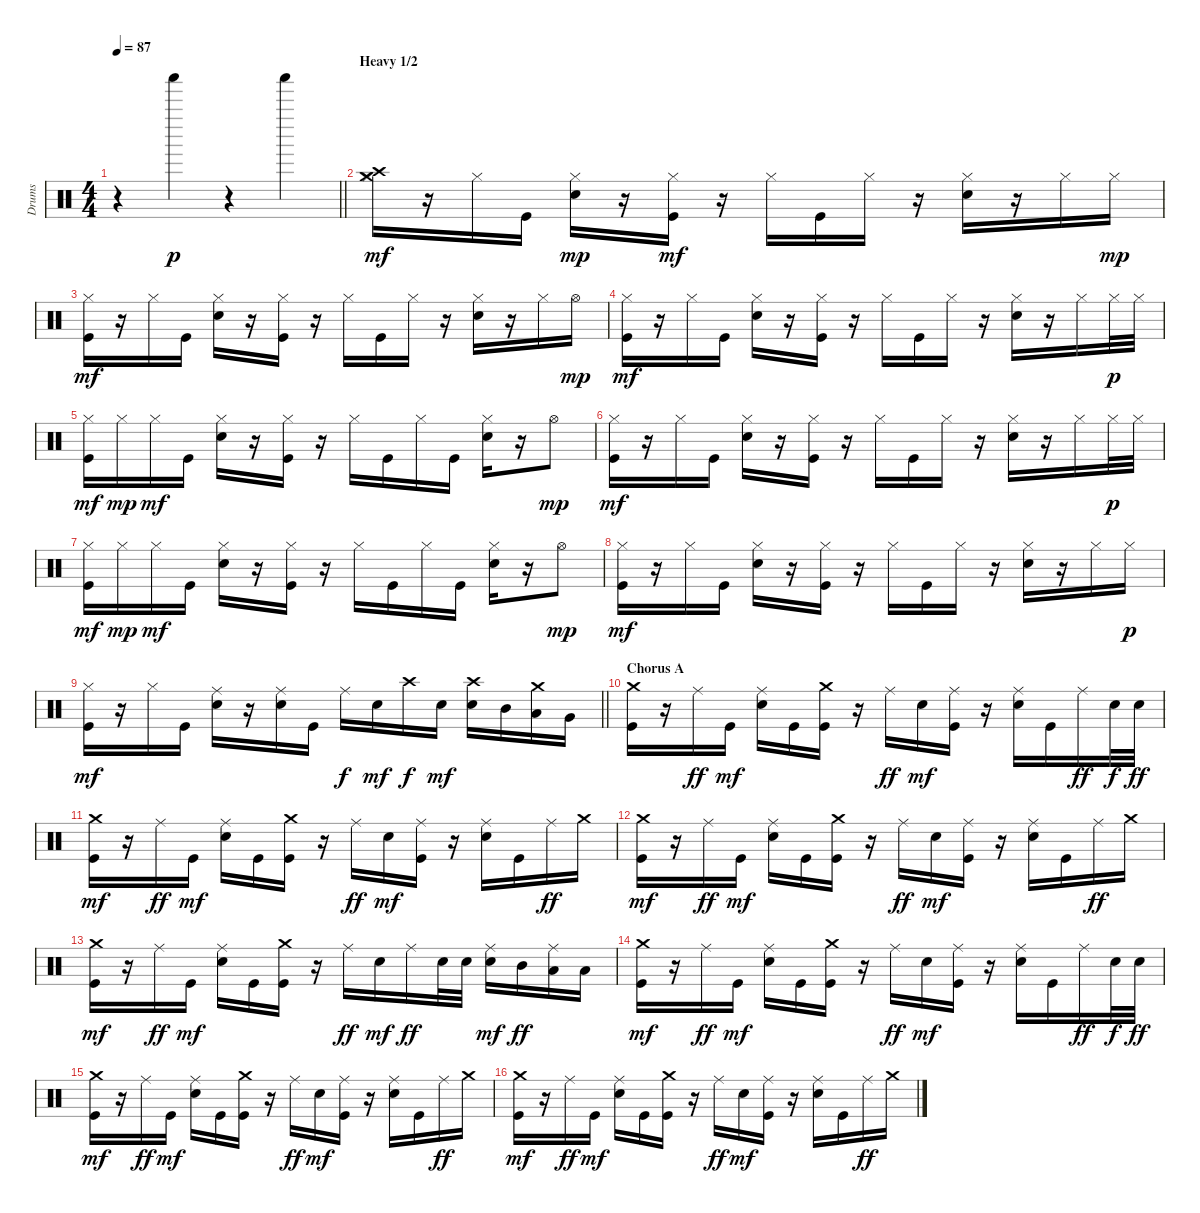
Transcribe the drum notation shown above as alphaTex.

\track ("Drums" "Drums") {instrument percussion}
\staff {score}
\articulation defaults
\ts (4 4)
\tempo 87
\clef neutral
\barLineRight lightlight
\ks c
r.4{dy p} "Shaker (hit)".4 r.4 "Shaker (hit)".4 |
\section ("" "Heavy 1/2")
("Hi-Hat (closed)" "Crash high (hit)" "Crash medium (hit)").16{dy mf} r.16 "Hi-Hat (closed)".16 "Kick (hit)".16 ("Hi-Hat (closed)" "Electric Snare (hit)").16{dy mp} r.16 ("Hi-Hat (closed)" "Kick (hit)").16{dy mf} r.16 "Hi-Hat (closed)".16 "Kick (hit)".16 "Hi-Hat (closed)".16 r.16 ("Hi-Hat (closed)" "Electric Snare (hit)").16 r.16 "Hi-Hat (closed)".16 "Hi-Hat (closed)".16{dy mp} |
("Hi-Hat (closed)" "Kick (hit)").16{dy mf} r.16 "Hi-Hat (closed)".16 "Kick (hit)".16 ("Hi-Hat (closed)" "Electric Snare (hit)").16 r.16 ("Hi-Hat (closed)" "Kick (hit)").16 r.16 "Hi-Hat (closed)".16 "Kick (hit)".16 "Hi-Hat (closed)".16 r.16 ("Hi-Hat (closed)" "Electric Snare (hit)").16 r.16 "Hi-Hat (closed)".16 "Hi-Hat (open)".16{dy mp} |
("Hi-Hat (closed)" "Kick (hit)").16{dy mf} r.16 "Hi-Hat (closed)".16 "Kick (hit)".16 ("Hi-Hat (closed)" "Electric Snare (hit)").16 r.16 ("Hi-Hat (closed)" "Kick (hit)").16 r.16 "Hi-Hat (closed)".16 "Kick (hit)".16 "Hi-Hat (closed)".16 r.16 ("Hi-Hat (closed)" "Electric Snare (hit)").16 r.16 "Hi-Hat (closed)".16 "Hi-Hat (closed)".32{dy p} "Hi-Hat (closed)".32 |
("Hi-Hat (closed)" "Kick (hit)").16{dy mf} "Hi-Hat (closed)".16{dy mp} "Hi-Hat (closed)".16{dy mf} "Kick (hit)".16 ("Hi-Hat (closed)" "Electric Snare (hit)").16 r.16 ("Hi-Hat (closed)" "Kick (hit)").16 r.16 "Hi-Hat (closed)".16 "Kick (hit)".16 "Hi-Hat (closed)".16 "Kick (hit)".16 ("Hi-Hat (closed)" "Electric Snare (hit)").16 r.16 "Hi-Hat (open)".8{dy mp} |
("Hi-Hat (closed)" "Kick (hit)").16{dy mf} r.16 "Hi-Hat (closed)".16 "Kick (hit)".16 ("Hi-Hat (closed)" "Electric Snare (hit)").16 r.16 ("Hi-Hat (closed)" "Kick (hit)").16 r.16 "Hi-Hat (closed)".16 "Kick (hit)".16 "Hi-Hat (closed)".16 r.16 ("Hi-Hat (closed)" "Electric Snare (hit)").16 r.16 "Hi-Hat (closed)".16 "Hi-Hat (closed)".32{dy p} "Hi-Hat (closed)".32 |
("Hi-Hat (closed)" "Kick (hit)").16{dy mf} "Hi-Hat (closed)".16{dy mp} "Hi-Hat (closed)".16{dy mf} "Kick (hit)".16 ("Hi-Hat (closed)" "Electric Snare (hit)").16 r.16 ("Hi-Hat (closed)" "Kick (hit)").16 r.16 "Hi-Hat (closed)".16 "Kick (hit)".16 "Hi-Hat (closed)".16 "Kick (hit)".16 ("Hi-Hat (closed)" "Electric Snare (hit)").16 r.16 "Hi-Hat (open)".8{dy mp} |
("Hi-Hat (closed)" "Kick (hit)").16{dy mf} r.16 "Hi-Hat (closed)".16 "Kick (hit)".16 ("Hi-Hat (closed)" "Electric Snare (hit)").16 r.16 ("Hi-Hat (closed)" "Kick (hit)").16 r.16 "Hi-Hat (closed)".16 "Kick (hit)".16 "Hi-Hat (closed)".16 r.16 ("Hi-Hat (closed)" "Electric Snare (hit)").16 r.16 "Hi-Hat (closed)".16 "Hi-Hat (closed)".16{dy p} |
\barLineRight lightlight
("Hi-Hat (closed)" "Kick (hit)").16{dy mf} r.16 "Hi-Hat (closed)".16 "Kick (hit)".16 ("Ride (middle)" "Electric Snare (hit)").16 r.16 ("Ride (middle)" "Electric Snare (hit)").16 "Kick (hit)".16 "Ride (middle)".16{dy f} "Electric Snare (hit)".16{dy mf} "Crash high (hit)".16{dy f} "Electric Snare (hit)".16{dy mf} ("Crash high (hit)" "Electric Snare (hit)").16 "Mid Tom (hit)".16 ("Crash medium (hit)" "Low Tom (hit)").16 "Very Low Tom (hit)".16 |
\section ("" "Chorus A")
("Crash medium (hit)" "Kick (hit)").16 r.16 "Ride (middle)".16{dy ff} "Kick (hit)".16{dy mf} ("Ride (middle)" "Electric Snare (hit)").16 "Kick (hit)".16 ("Crash medium (hit)" "Kick (hit)").16 r.16 "Ride (middle)".16{dy ff} "Electric Snare (hit)".16{dy mf} ("Ride (middle)" "Kick (hit)").16 r.16 ("Ride (middle)" "Electric Snare (hit)").16 "Kick (hit)".16 "Ride (middle)".16{dy ff} "Electric Snare (hit)".32{dy f} "Electric Snare (hit)".32{dy ff} |
("Crash medium (hit)" "Kick (hit)").16{dy mf} r.16 "Ride (middle)".16{dy ff} "Kick (hit)".16{dy mf} ("Ride (middle)" "Electric Snare (hit)").16 "Kick (hit)".16 ("Crash medium (hit)" "Kick (hit)").16 r.16 "Ride (middle)".16{dy ff} "Electric Snare (hit)".16{dy mf} ("Ride (middle)" "Kick (hit)").16 r.16 ("Ride (middle)" "Electric Snare (hit)").16 "Kick (hit)".16 "Ride (middle)".16{dy ff} "Crash medium (hit)".16 |
("Crash medium (hit)" "Kick (hit)").16{dy mf} r.16 "Ride (middle)".16{dy ff} "Kick (hit)".16{dy mf} ("Ride (middle)" "Electric Snare (hit)").16 "Kick (hit)".16 ("Crash medium (hit)" "Kick (hit)").16 r.16 "Ride (middle)".16{dy ff} "Electric Snare (hit)".16{dy mf} ("Ride (middle)" "Kick (hit)").16 r.16 ("Ride (middle)" "Electric Snare (hit)").16 "Kick (hit)".16 "Ride (middle)".16{dy ff} "Crash medium (hit)".16 |
("Crash medium (hit)" "Kick (hit)").16{dy mf} r.16 "Ride (middle)".16{dy ff} "Kick (hit)".16{dy mf} ("Ride (middle)" "Electric Snare (hit)").16 "Kick (hit)".16 ("Crash medium (hit)" "Kick (hit)").16 r.16 "Ride (middle)".16{dy ff} "Electric Snare (hit)".16{dy mf} "Ride (middle)".16{dy ff} "Electric Snare (hit)".32 "Electric Snare (hit)".32 ("Ride (middle)" "Electric Snare (hit)").16{dy mf} "Mid Tom (hit)".16{dy ff} ("Ride (middle)" "Low Tom (hit)").16 "Low Floor Tom (hit)".16 |
("Crash medium (hit)" "Kick (hit)").16{dy mf} r.16 "Ride (middle)".16{dy ff} "Kick (hit)".16{dy mf} ("Ride (middle)" "Electric Snare (hit)").16 "Kick (hit)".16 ("Crash medium (hit)" "Kick (hit)").16 r.16 "Ride (middle)".16{dy ff} "Electric Snare (hit)".16{dy mf} ("Ride (middle)" "Kick (hit)").16 r.16 ("Ride (middle)" "Electric Snare (hit)").16 "Kick (hit)".16 "Ride (middle)".16{dy ff} "Electric Snare (hit)".32{dy f} "Electric Snare (hit)".32{dy ff} |
("Crash medium (hit)" "Kick (hit)").16{dy mf} r.16 "Ride (middle)".16{dy ff} "Kick (hit)".16{dy mf} ("Ride (middle)" "Electric Snare (hit)").16 "Kick (hit)".16 ("Crash medium (hit)" "Kick (hit)").16 r.16 "Ride (middle)".16{dy ff} "Electric Snare (hit)".16{dy mf} ("Ride (middle)" "Kick (hit)").16 r.16 ("Ride (middle)" "Electric Snare (hit)").16 "Kick (hit)".16 "Ride (middle)".16{dy ff} "Crash medium (hit)".16 |
("Crash medium (hit)" "Kick (hit)").16{dy mf} r.16 "Ride (middle)".16{dy ff} "Kick (hit)".16{dy mf} ("Ride (middle)" "Electric Snare (hit)").16 "Kick (hit)".16 ("Crash medium (hit)" "Kick (hit)").16 r.16 "Ride (middle)".16{dy ff} "Electric Snare (hit)".16{dy mf} ("Ride (middle)" "Kick (hit)").16 r.16 ("Ride (middle)" "Electric Snare (hit)").16 "Kick (hit)".16 "Ride (middle)".16{dy ff} "Crash medium (hit)".16
